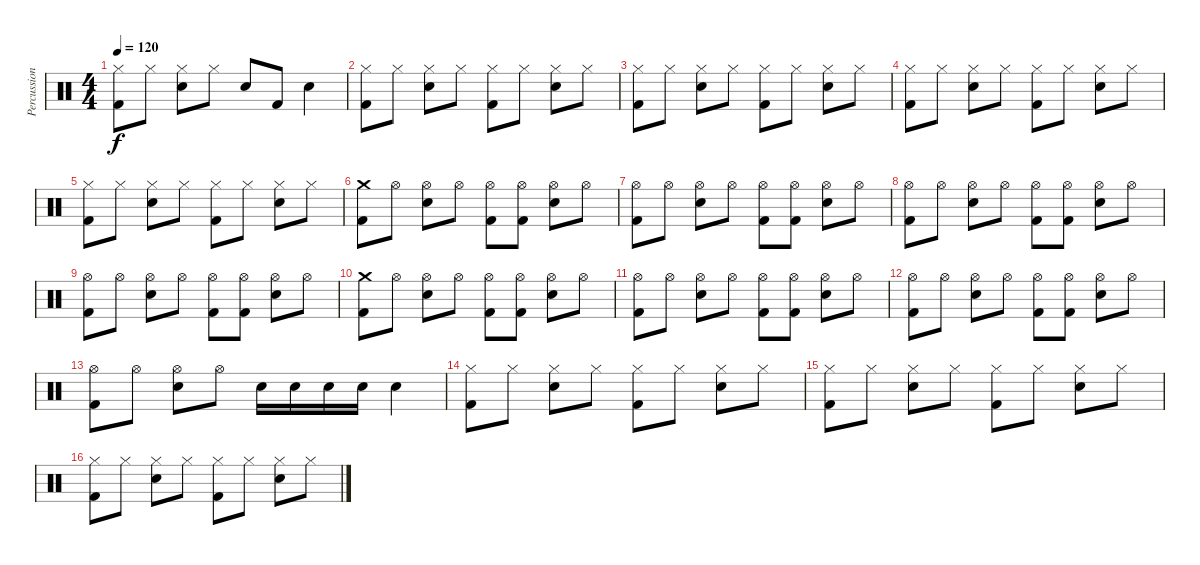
\track ("Percussioni" "Percussion") {instrument percussion}
\staff {score}
\articulation defaults
\ts (4 4)
\tempo 120
\clef neutral
\ks c
("Hi-Hat (closed)" "Kick (hit) 2").8{dy f} "Hi-Hat (closed)".8 ("Hi-Hat (closed)" "Snare (hit) 2").8 "Hi-Hat (closed)".8 "Snare (hit) 2".8 "Kick (hit) 2".8 "Snare (hit) 2".4 |
("Hi-Hat (closed)" "Kick (hit) 2").8 "Hi-Hat (closed)".8 ("Hi-Hat (closed)" "Snare (hit) 2").8 "Hi-Hat (closed)".8 ("Hi-Hat (closed)" "Kick (hit) 2").8 "Hi-Hat (closed)".8 ("Hi-Hat (closed)" "Snare (hit) 2").8 "Hi-Hat (closed)".8 |
("Hi-Hat (closed)" "Kick (hit) 2").8 "Hi-Hat (closed)".8 ("Hi-Hat (closed)" "Snare (hit) 2").8 "Hi-Hat (closed)".8 ("Hi-Hat (closed)" "Kick (hit) 2").8 "Hi-Hat (closed)".8 ("Hi-Hat (closed)" "Snare (hit) 2").8 "Hi-Hat (closed)".8 |
("Hi-Hat (closed)" "Kick (hit) 2").8 "Hi-Hat (closed)".8 ("Hi-Hat (closed)" "Snare (hit) 2").8 "Hi-Hat (closed)".8 ("Hi-Hat (closed)" "Kick (hit) 2").8 "Hi-Hat (closed)".8 ("Hi-Hat (closed)" "Snare (hit) 2").8 "Hi-Hat (closed)".8 |
("Hi-Hat (closed)" "Kick (hit) 2").8 "Hi-Hat (closed)".8 ("Hi-Hat (closed)" "Snare (hit) 2").8 "Hi-Hat (closed)".8 ("Hi-Hat (closed)" "Kick (hit) 2").8 "Hi-Hat (closed)".8 ("Hi-Hat (closed)" "Snare (hit) 2").8 "Hi-Hat (closed)".8 |
("Crash medium (hit)" "Kick (hit) 2").8 "Hi-Hat (open)".8 ("Hi-Hat (open)" "Snare (hit) 2").8 "Hi-Hat (open)".8 ("Hi-Hat (open)" "Kick (hit) 2").8 ("Hi-Hat (open)" "Kick (hit) 2").8 ("Hi-Hat (open)" "Snare (hit) 2").8 "Hi-Hat (open)".8 |
("Hi-Hat (open)" "Kick (hit) 2").8 "Hi-Hat (open)".8 ("Hi-Hat (open)" "Snare (hit) 2").8 "Hi-Hat (open)".8 ("Hi-Hat (open)" "Kick (hit) 2").8 ("Hi-Hat (open)" "Kick (hit) 2").8 ("Hi-Hat (open)" "Snare (hit) 2").8 "Hi-Hat (open)".8 |
("Hi-Hat (open)" "Kick (hit) 2").8 "Hi-Hat (open)".8 ("Hi-Hat (open)" "Snare (hit) 2").8 "Hi-Hat (open)".8 ("Hi-Hat (open)" "Kick (hit) 2").8 ("Hi-Hat (open)" "Kick (hit) 2").8 ("Hi-Hat (open)" "Snare (hit) 2").8 "Hi-Hat (open)".8 |
("Hi-Hat (open)" "Kick (hit) 2").8 "Hi-Hat (open)".8 ("Hi-Hat (open)" "Snare (hit) 2").8 "Hi-Hat (open)".8 ("Hi-Hat (open)" "Kick (hit) 2").8 ("Hi-Hat (open)" "Kick (hit) 2").8 ("Hi-Hat (open)" "Snare (hit) 2").8 "Hi-Hat (open)".8 |
("Crash medium (hit)" "Kick (hit) 2").8 "Hi-Hat (open)".8 ("Hi-Hat (open)" "Snare (hit) 2").8 "Hi-Hat (open)".8 ("Hi-Hat (open)" "Kick (hit) 2").8 ("Hi-Hat (open)" "Kick (hit) 2").8 ("Hi-Hat (open)" "Snare (hit) 2").8 "Hi-Hat (open)".8 |
("Hi-Hat (open)" "Kick (hit) 2").8 "Hi-Hat (open)".8 ("Hi-Hat (open)" "Snare (hit) 2").8 "Hi-Hat (open)".8 ("Hi-Hat (open)" "Kick (hit) 2").8 ("Hi-Hat (open)" "Kick (hit) 2").8 ("Hi-Hat (open)" "Snare (hit) 2").8 "Hi-Hat (open)".8 |
("Hi-Hat (open)" "Kick (hit) 2").8 "Hi-Hat (open)".8 ("Hi-Hat (open)" "Snare (hit) 2").8 "Hi-Hat (open)".8 ("Hi-Hat (open)" "Kick (hit) 2").8 ("Hi-Hat (open)" "Kick (hit) 2").8 ("Hi-Hat (open)" "Snare (hit) 2").8 "Hi-Hat (open)".8 |
("Hi-Hat (open)" "Kick (hit) 2").8 "Hi-Hat (open)".8 ("Hi-Hat (open)" "Snare (hit) 2").8 "Hi-Hat (open)".8 "Snare (hit) 2".16 "Snare (hit) 2".16 "Snare (hit) 2".16 "Snare (hit) 2".16 "Snare (hit) 2".4 |
("Hi-Hat (closed)" "Kick (hit) 2").8 "Hi-Hat (closed)".8 ("Hi-Hat (closed)" "Snare (hit) 2").8 "Hi-Hat (closed)".8 ("Hi-Hat (closed)" "Kick (hit) 2").8 "Hi-Hat (closed)".8 ("Hi-Hat (closed)" "Snare (hit) 2").8 "Hi-Hat (closed)".8 |
("Hi-Hat (closed)" "Kick (hit) 2").8 "Hi-Hat (closed)".8 ("Hi-Hat (closed)" "Snare (hit) 2").8 "Hi-Hat (closed)".8 ("Hi-Hat (closed)" "Kick (hit) 2").8 "Hi-Hat (closed)".8 ("Hi-Hat (closed)" "Snare (hit) 2").8 "Hi-Hat (closed)".8 |
("Hi-Hat (closed)" "Kick (hit) 2").8 "Hi-Hat (closed)".8 ("Hi-Hat (closed)" "Snare (hit) 2").8 "Hi-Hat (closed)".8 ("Hi-Hat (closed)" "Kick (hit) 2").8 "Hi-Hat (closed)".8 ("Hi-Hat (closed)" "Snare (hit) 2").8 "Hi-Hat (closed)".8
